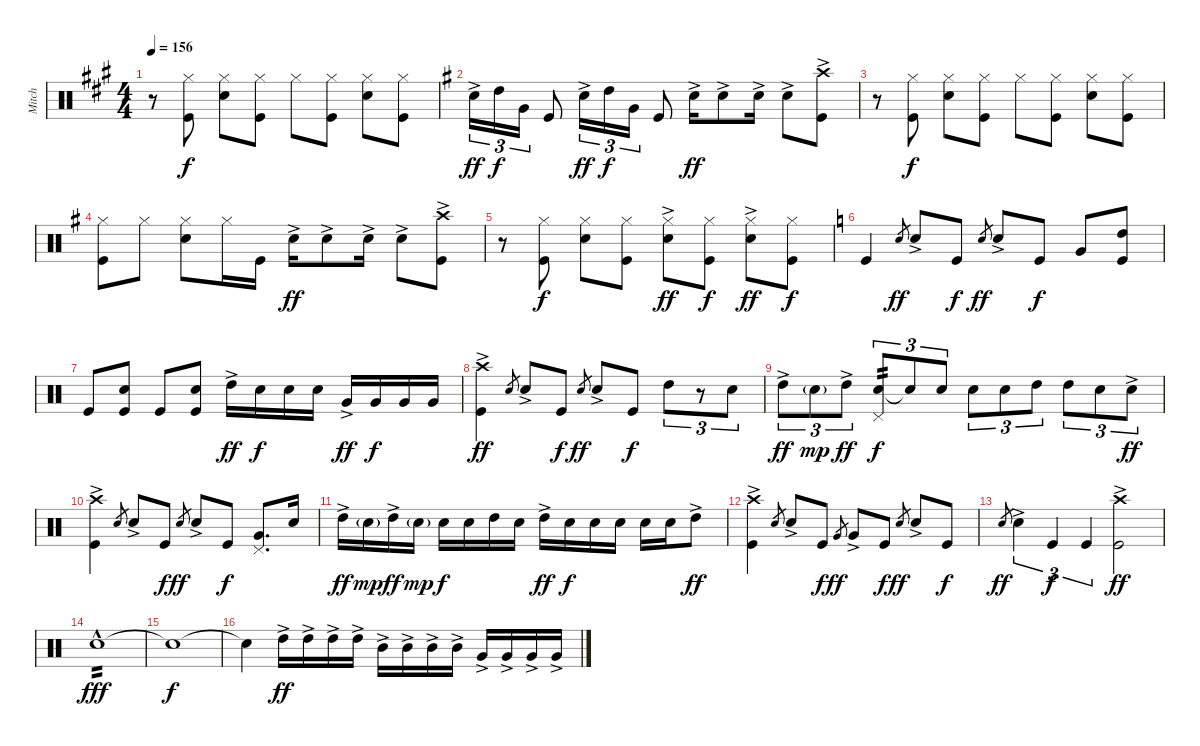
\track ("Mitch" "Mitch") {instrument percussion}
\staff {score}
\articulation defaults
\ts (4 4)
\tempo 156
\clef neutral
\ks a
r.8{dy ff} ("Hi-Hat (closed)" "Kick (hit)").8{dy f} ("Hi-Hat (closed)" "Snare (hit) 2").8 ("Hi-Hat (closed)" "Kick (hit)").8 "Hi-Hat (closed)".8 ("Hi-Hat (closed)" "Kick (hit)").8 ("Hi-Hat (closed)" "Snare (hit) 2").8 ("Hi-Hat (closed)" "Kick (hit)").8 |
\ks g "Snare (hit) 2"{ac}.16{tu (3 2) dy ff} "High Tom (hit)".16{tu (3 2) dy f} "Very Low Tom (hit)".16{tu (3 2)} "Kick (hit)".8 "Snare (hit) 2"{ac}.16{tu (3 2) dy ff} "High Tom (hit)".16{tu (3 2) dy f} "Very Low Tom (hit)".16{tu (3 2)} "Kick (hit)".8 "Snare (hit) 2"{ac}.16{dy ff} "Snare (hit) 2"{ac}.8 "Snare (hit) 2"{ac}.16 "Snare (hit) 2"{ac}.8
("Crash high (hit)"{ac} "Kick (hit)").8 |
r.8 ("Hi-Hat (closed)" "Kick (hit)").8{dy f} ("Hi-Hat (closed)" "Snare (hit) 2").8 ("Hi-Hat (closed)" "Kick (hit)").8 "Hi-Hat (closed)".8 ("Hi-Hat (closed)" "Kick (hit)").8 ("Hi-Hat (closed)" "Snare (hit) 2").8 ("Hi-Hat (closed)" "Kick (hit)").8 |
("Hi-Hat (closed)" "Kick (hit)").8 "Hi-Hat (closed)".8 ("Hi-Hat (closed)" "Snare (hit) 2").8 "Hi-Hat (closed)".16 "Kick (hit)".16 "Snare (hit) 2"{ac}.16{dy ff} "Snare (hit) 2"{ac}.8 "Snare (hit) 2"{ac}.16 "Snare (hit) 2"{ac}.8 ("Crash high (hit)"{ac} "Kick (hit)").8 |
r.8 ("Hi-Hat (closed)" "Kick (hit)").8{dy f} ("Hi-Hat (closed)" "Snare (hit) 2").8 ("Hi-Hat (closed)" "Kick (hit)").8 ("Hi-Hat (closed)" "Snare (hit) 2"{ac}).8{dy ff} ("Hi-Hat (closed)" "Kick (hit)").8{dy f} ("Hi-Hat (closed)" "Snare (hit) 2"{ac}).8{dy ff} ("Hi-Hat (closed)" "Kick (hit)").8{dy f} |
\ks c "Kick (hit)".4 "Snare (hit) 2".8{gr dy ff} "Snare (hit) 2"{ac}.8 "Kick (hit)".8{dy f} "Snare (hit) 2".8{gr dy ff} "Snare (hit) 2"{ac}.8 "Kick (hit)".8{dy f} "Very Low Tom (hit)".8
("High Tom (hit)" "Kick (hit)").8 |
"Kick (hit)".8 ("Snare (hit) 2" "Kick (hit)").8 "Kick (hit)".8 ("Snare (hit) 2" "Kick (hit)").8 "High Tom (hit)"{ac}.16{dy ff} "Snare (hit) 2".16{dy f} "Snare (hit) 2".16 "Snare (hit) 2".16 "Very Low Tom (hit)"{ac}.16{dy ff} "Very Low Tom (hit)".16{dy f} "Very Low Tom (hit)".16 "Very Low Tom (hit)".16 |
("Crash high (hit)"{ac} "Kick (hit)").4{dy ff} "Snare (hit) 2".8{gr} "Snare (hit) 2"{ac}.8 "Kick (hit)".8{dy f} "Snare (hit) 2".8{gr dy ff} "Snare (hit) 2"{ac}.8 "Kick (hit)".8{dy f} "High Tom (hit)".8{tu (3 2)} r.8{tu (3 2)} "Snare (hit) 2".8{tu (3 2)} |
"High Tom (hit)"{ac}.8{tu (3 2) dy ff} "Snare (hit) 2"{g}.8{tu (3 2) dy mp} "High Tom (hit)"{ac}.8{tu (3 2) dy ff} ("Snare (hit) 2" "Pedal Hi-Hat (hit)").8{tu (3 2) tp 2 dy f} "Snare (hit) 2"{t}.8{tu (3 2)} "Snare (hit) 2".8{tu (3 2)} "Snare (hit) 2".8{tu (3 2)} "Snare (hit) 2".8{tu (3 2)} "High Tom (hit)".8{tu (3 2)} "High Tom (hit)".8{tu (3 2)} "Snare (hit) 2".8{tu (3 2)} "Snare (hit) 2"{ac}.8{tu (3 2) dy ff} |
("Crash high (hit)"{ac} "Kick (hit)").4 "Snare (hit) 2".8{gr} "Snare (hit) 2"{ac}.8 "Kick (hit)".8{dy f} "Snare (hit) 2".8{gr dy ff} "Snare (hit) 2"{ac}.8 "Kick (hit)".8{dy f} ("Very Low Tom (hit)" "Pedal Hi-Hat (hit)").8{d} "Snare (hit) 2".16 |
"High Tom (hit)"{ac}.16{dy ff} "Snare (hit) 2"{g}.16{dy mp} "High Tom (hit)"{ac}.16{dy ff} "Snare (hit) 2"{g}.16{dy mp} "Snare (hit) 2".16{dy f} "Snare (hit) 2".16 "High Tom (hit)".16 "Snare (hit) 2".16 "High Tom (hit)"{ac}.16{dy ff} "Snare (hit) 2".16{dy f} "Snare (hit) 2".16 "Snare (hit) 2".16 "Snare (hit) 2".16 "Snare (hit) 2".16 "High Tom (hit)"{ac}.8{dy ff} |
("Crash high (hit)"{ac} "Kick (hit)").4 "Snare (hit) 2".8{gr} "Snare (hit) 2"{ac}.8 "Kick (hit)".8{dy f} "Very Low Tom (hit)".8{gr dy ff} "Very Low Tom (hit)"{ac}.8 "Kick (hit)".8{dy f} "Snare (hit) 2".8{gr dy ff} "Snare (hit) 2"{ac}.8 "Kick (hit)".8{dy f} |
"Snare (hit) 2".8{gr dy ff} "Snare (hit) 2"{ac}.4{tu (3 2)} "Kick (hit)".4{tu (3 2) dy f} "Kick (hit)".4{tu (3 2)} ("Crash high (hit)"{ac} "Kick (hit)").2{dy ff} |
"Snare (hit) 2"{hac}.1{tp 2 dy fff} |
"Snare (hit) 2"{t}.1{dy f} |
"Snare (hit) 2"{t}.4 "High Tom (hit)"{ac}.16{dy ff} "High Tom (hit)"{ac}.16 "High Tom (hit)"{ac}.16 "High Tom (hit)"{ac}.16 "Mid Tom (hit)"{ac}.16 "Mid Tom (hit)"{ac}.16 "Mid Tom (hit)"{ac}.16 "Mid Tom (hit)"{ac}.16 "Very Low Tom (hit)"{ac}.16 "Very Low Tom (hit)"{ac}.16 "Very Low Tom (hit)"{ac}.16 "Very Low Tom (hit)"{ac}.16
